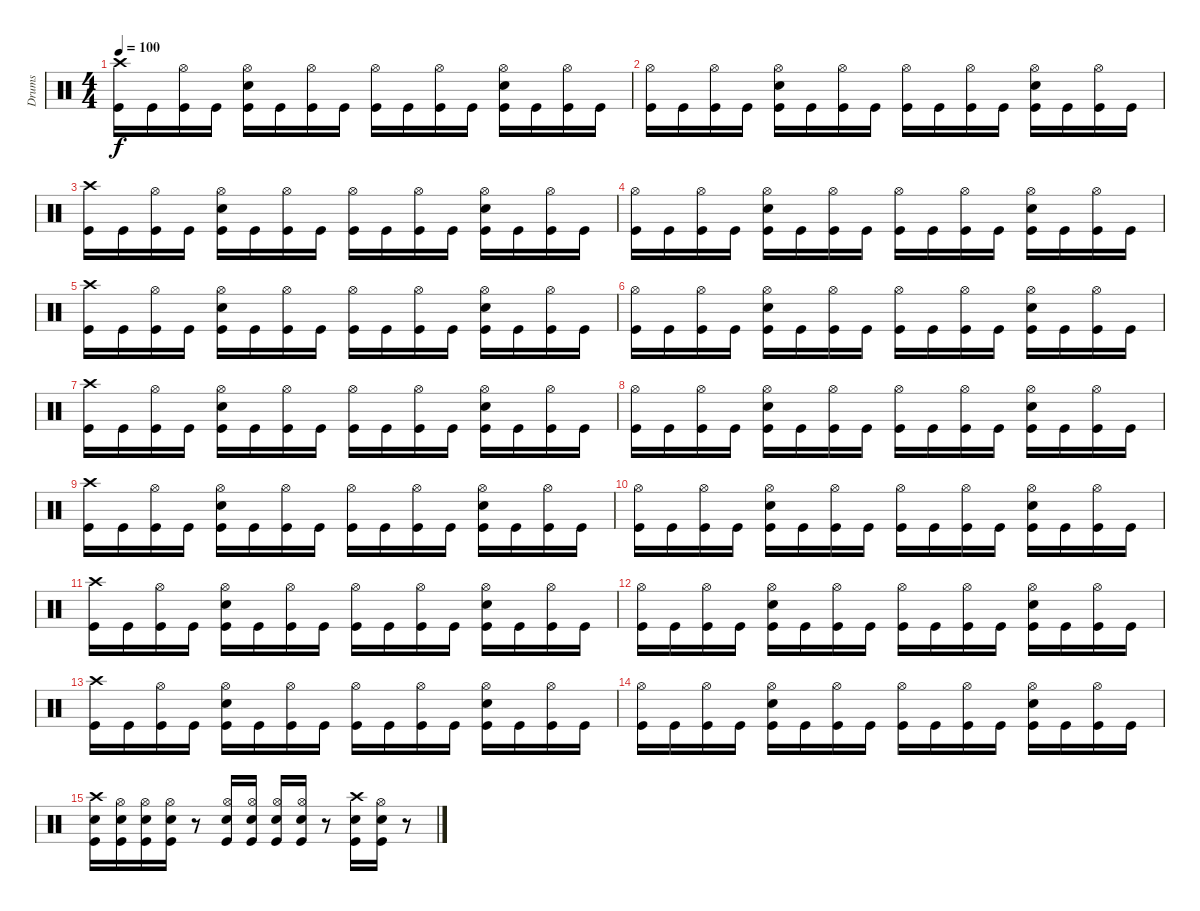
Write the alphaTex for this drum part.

\track ("Drums" "Drums") {instrument percussion}
\staff {score}
\articulation defaults
\ts (4 4)
\tempo 100
\clef neutral
\ks c
("Crash high (hit)" "Kick (hit)").16{dy f} "Kick (hit)".16 ("Hi-Hat (open)" "Kick (hit)").16 "Kick (hit)".16 ("Hi-Hat (open)" "Electric Snare (hit)" "Kick (hit)").16 "Kick (hit)".16 ("Hi-Hat (open)" "Kick (hit)").16 "Kick (hit)".16 ("Hi-Hat (open)" "Kick (hit)").16 "Kick (hit)".16 ("Hi-Hat (open)" "Kick (hit)").16 "Kick (hit)".16 ("Hi-Hat (open)" "Electric Snare (hit)" "Kick (hit)").16 "Kick (hit)".16 ("Hi-Hat (open)" "Kick (hit)").16 "Kick (hit)".16 |
("Hi-Hat (open)" "Kick (hit)").16 "Kick (hit)".16 ("Hi-Hat (open)" "Kick (hit)").16 "Kick (hit)".16 ("Hi-Hat (open)" "Electric Snare (hit)" "Kick (hit)").16 "Kick (hit)".16 ("Hi-Hat (open)" "Kick (hit)").16 "Kick (hit)".16 ("Hi-Hat (open)" "Kick (hit)").16 "Kick (hit)".16 ("Hi-Hat (open)" "Kick (hit)").16 "Kick (hit)".16 ("Hi-Hat (open)" "Electric Snare (hit)" "Kick (hit)").16 "Kick (hit)".16 ("Hi-Hat (open)" "Kick (hit)").16 "Kick (hit)".16 |
("Crash high (hit)" "Kick (hit)").16 "Kick (hit)".16 ("Hi-Hat (open)" "Kick (hit)").16 "Kick (hit)".16 ("Hi-Hat (open)" "Electric Snare (hit)" "Kick (hit)").16 "Kick (hit)".16 ("Hi-Hat (open)" "Kick (hit)").16 "Kick (hit)".16 ("Hi-Hat (open)" "Kick (hit)").16 "Kick (hit)".16 ("Hi-Hat (open)" "Kick (hit)").16 "Kick (hit)".16 ("Hi-Hat (open)" "Electric Snare (hit)" "Kick (hit)").16 "Kick (hit)".16 ("Hi-Hat (open)" "Kick (hit)").16 "Kick (hit)".16 |
("Hi-Hat (open)" "Kick (hit)").16 "Kick (hit)".16 ("Hi-Hat (open)" "Kick (hit)").16 "Kick (hit)".16 ("Hi-Hat (open)" "Electric Snare (hit)" "Kick (hit)").16 "Kick (hit)".16 ("Hi-Hat (open)" "Kick (hit)").16 "Kick (hit)".16 ("Hi-Hat (open)" "Kick (hit)").16 "Kick (hit)".16 ("Hi-Hat (open)" "Kick (hit)").16 "Kick (hit)".16 ("Hi-Hat (open)" "Electric Snare (hit)" "Kick (hit)").16 "Kick (hit)".16 ("Hi-Hat (open)" "Kick (hit)").16 "Kick (hit)".16 |
("Crash high (hit)" "Kick (hit)").16 "Kick (hit)".16 ("Hi-Hat (open)" "Kick (hit)").16 "Kick (hit)".16 ("Hi-Hat (open)" "Electric Snare (hit)" "Kick (hit)").16 "Kick (hit)".16 ("Hi-Hat (open)" "Kick (hit)").16 "Kick (hit)".16 ("Hi-Hat (open)" "Kick (hit)").16 "Kick (hit)".16 ("Hi-Hat (open)" "Kick (hit)").16 "Kick (hit)".16 ("Hi-Hat (open)" "Electric Snare (hit)" "Kick (hit)").16 "Kick (hit)".16 ("Hi-Hat (open)" "Kick (hit)").16 "Kick (hit)".16 |
("Hi-Hat (open)" "Kick (hit)").16 "Kick (hit)".16 ("Hi-Hat (open)" "Kick (hit)").16 "Kick (hit)".16 ("Hi-Hat (open)" "Electric Snare (hit)" "Kick (hit)").16 "Kick (hit)".16 ("Hi-Hat (open)" "Kick (hit)").16 "Kick (hit)".16 ("Hi-Hat (open)" "Kick (hit)").16 "Kick (hit)".16 ("Hi-Hat (open)" "Kick (hit)").16 "Kick (hit)".16 ("Hi-Hat (open)" "Electric Snare (hit)" "Kick (hit)").16 "Kick (hit)".16 ("Hi-Hat (open)" "Kick (hit)").16 "Kick (hit)".16 |
("Crash high (hit)" "Kick (hit)").16 "Kick (hit)".16 ("Hi-Hat (open)" "Kick (hit)").16 "Kick (hit)".16 ("Hi-Hat (open)" "Electric Snare (hit)" "Kick (hit)").16 "Kick (hit)".16 ("Hi-Hat (open)" "Kick (hit)").16 "Kick (hit)".16 ("Hi-Hat (open)" "Kick (hit)").16 "Kick (hit)".16 ("Hi-Hat (open)" "Kick (hit)").16 "Kick (hit)".16 ("Hi-Hat (open)" "Electric Snare (hit)" "Kick (hit)").16 "Kick (hit)".16 ("Hi-Hat (open)" "Kick (hit)").16 "Kick (hit)".16 |
("Hi-Hat (open)" "Kick (hit)").16 "Kick (hit)".16 ("Hi-Hat (open)" "Kick (hit)").16 "Kick (hit)".16 ("Hi-Hat (open)" "Electric Snare (hit)" "Kick (hit)").16 "Kick (hit)".16 ("Hi-Hat (open)" "Kick (hit)").16 "Kick (hit)".16 ("Hi-Hat (open)" "Kick (hit)").16 "Kick (hit)".16 ("Hi-Hat (open)" "Kick (hit)").16 "Kick (hit)".16 ("Hi-Hat (open)" "Electric Snare (hit)" "Kick (hit)").16 "Kick (hit)".16 ("Hi-Hat (open)" "Kick (hit)").16 "Kick (hit)".16 |
("Crash high (hit)" "Kick (hit)").16 "Kick (hit)".16 ("Hi-Hat (open)" "Kick (hit)").16 "Kick (hit)".16 ("Hi-Hat (open)" "Electric Snare (hit)" "Kick (hit)").16 "Kick (hit)".16 ("Hi-Hat (open)" "Kick (hit)").16 "Kick (hit)".16 ("Hi-Hat (open)" "Kick (hit)").16 "Kick (hit)".16 ("Hi-Hat (open)" "Kick (hit)").16 "Kick (hit)".16 ("Hi-Hat (open)" "Electric Snare (hit)" "Kick (hit)").16 "Kick (hit)".16 ("Hi-Hat (open)" "Kick (hit)").16 "Kick (hit)".16 |
("Hi-Hat (open)" "Kick (hit)").16 "Kick (hit)".16 ("Hi-Hat (open)" "Kick (hit)").16 "Kick (hit)".16 ("Hi-Hat (open)" "Electric Snare (hit)" "Kick (hit)").16 "Kick (hit)".16 ("Hi-Hat (open)" "Kick (hit)").16 "Kick (hit)".16 ("Hi-Hat (open)" "Kick (hit)").16 "Kick (hit)".16 ("Hi-Hat (open)" "Kick (hit)").16 "Kick (hit)".16 ("Hi-Hat (open)" "Electric Snare (hit)" "Kick (hit)").16 "Kick (hit)".16 ("Hi-Hat (open)" "Kick (hit)").16 "Kick (hit)".16 |
("Crash high (hit)" "Kick (hit)").16 "Kick (hit)".16 ("Hi-Hat (open)" "Kick (hit)").16 "Kick (hit)".16 ("Hi-Hat (open)" "Electric Snare (hit)" "Kick (hit)").16 "Kick (hit)".16 ("Hi-Hat (open)" "Kick (hit)").16 "Kick (hit)".16 ("Hi-Hat (open)" "Kick (hit)").16 "Kick (hit)".16 ("Hi-Hat (open)" "Kick (hit)").16 "Kick (hit)".16 ("Hi-Hat (open)" "Electric Snare (hit)" "Kick (hit)").16 "Kick (hit)".16 ("Hi-Hat (open)" "Kick (hit)").16 "Kick (hit)".16 |
("Hi-Hat (open)" "Kick (hit)").16 "Kick (hit)".16 ("Hi-Hat (open)" "Kick (hit)").16 "Kick (hit)".16 ("Hi-Hat (open)" "Electric Snare (hit)" "Kick (hit)").16 "Kick (hit)".16 ("Hi-Hat (open)" "Kick (hit)").16 "Kick (hit)".16 ("Hi-Hat (open)" "Kick (hit)").16 "Kick (hit)".16 ("Hi-Hat (open)" "Kick (hit)").16 "Kick (hit)".16 ("Hi-Hat (open)" "Electric Snare (hit)" "Kick (hit)").16 "Kick (hit)".16 ("Hi-Hat (open)" "Kick (hit)").16 "Kick (hit)".16 |
("Crash high (hit)" "Kick (hit)").16 "Kick (hit)".16 ("Hi-Hat (open)" "Kick (hit)").16 "Kick (hit)".16 ("Hi-Hat (open)" "Electric Snare (hit)" "Kick (hit)").16 "Kick (hit)".16 ("Hi-Hat (open)" "Kick (hit)").16 "Kick (hit)".16 ("Hi-Hat (open)" "Kick (hit)").16 "Kick (hit)".16 ("Hi-Hat (open)" "Kick (hit)").16 "Kick (hit)".16 ("Hi-Hat (open)" "Electric Snare (hit)" "Kick (hit)").16 "Kick (hit)".16 ("Hi-Hat (open)" "Kick (hit)").16 "Kick (hit)".16 |
("Hi-Hat (open)" "Kick (hit)").16 "Kick (hit)".16 ("Hi-Hat (open)" "Kick (hit)").16 "Kick (hit)".16 ("Hi-Hat (open)" "Electric Snare (hit)" "Kick (hit)").16 "Kick (hit)".16 ("Hi-Hat (open)" "Kick (hit)").16 "Kick (hit)".16 ("Hi-Hat (open)" "Kick (hit)").16 "Kick (hit)".16 ("Hi-Hat (open)" "Kick (hit)").16 "Kick (hit)".16 ("Hi-Hat (open)" "Electric Snare (hit)" "Kick (hit)").16 "Kick (hit)".16 ("Hi-Hat (open)" "Kick (hit)").16 "Kick (hit)".16 |
("Crash high (hit)" "Electric Snare (hit)" "Kick (hit)").16 ("Hi-Hat (open)" "Electric Snare (hit)" "Kick (hit)").16 ("Hi-Hat (open)" "Electric Snare (hit)" "Kick (hit)").16 ("Hi-Hat (open)" "Electric Snare (hit)" "Kick (hit)").16 r.8 ("Hi-Hat (open)" "Electric Snare (hit)" "Kick (hit)").16 ("Hi-Hat (open)" "Electric Snare (hit)" "Kick (hit)").16 ("Hi-Hat (open)" "Electric Snare (hit)" "Kick (hit)").16 ("Hi-Hat (open)" "Electric Snare (hit)" "Kick (hit)").16 r.8 ("Crash high (hit)" "Electric Snare (hit)" "Kick (hit)").16 ("Hi-Hat (open)" "Electric Snare (hit)" "Kick (hit)").16 r.8
